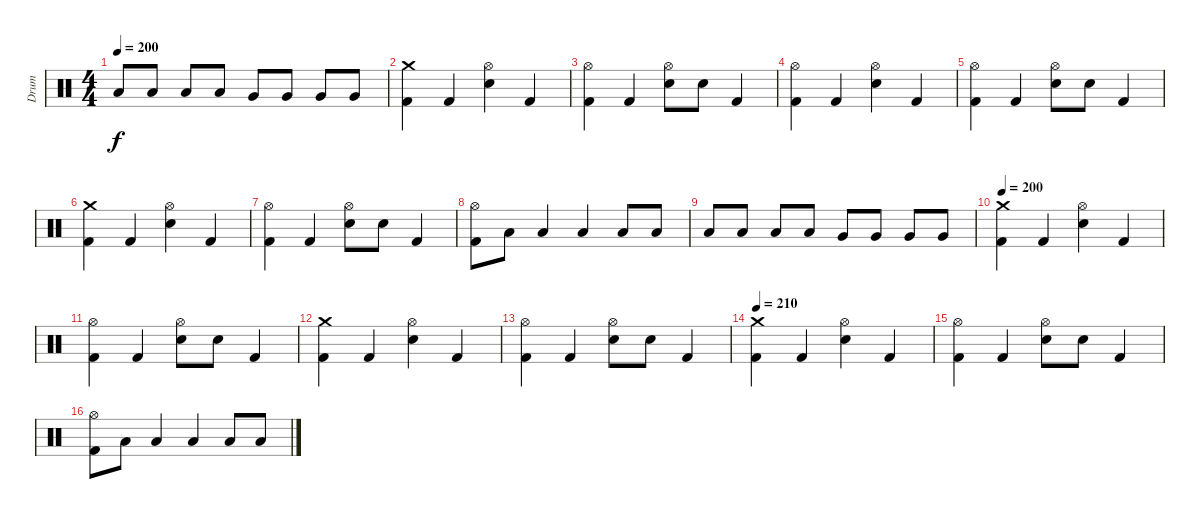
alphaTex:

\track ("Drum" "Drum") {instrument percussion}
\staff {score}
\articulation defaults
\ts (4 4)
\tempo 200
\clef neutral
\ks c "Low Tom (hit)".8{dy f} "Low Tom (hit)".8 "Low Tom (hit)".8 "Low Tom (hit)".8 "Very Low Tom (hit)".8 "Very Low Tom (hit)".8 "Very Low Tom (hit)".8 "Very Low Tom (hit)".8
|
("Crash medium (hit)" "Kick (hit) 2").4 "Kick (hit) 2".4 ("Electric Snare (hit)" "Hi-Hat (open)").4 "Kick (hit) 2".4 |
("Hi-Hat (open)" "Kick (hit) 2").4 "Kick (hit) 2".4 ("Electric Snare (hit)" "Hi-Hat (open)").8 "Electric Snare (hit)".8 "Kick (hit) 2".4 |
("Hi-Hat (open)" "Kick (hit) 2").4 "Kick (hit) 2".4 ("Electric Snare (hit)" "Hi-Hat (open)").4 "Kick (hit) 2".4 |
("Hi-Hat (open)" "Kick (hit) 2").4 "Kick (hit) 2".4 ("Electric Snare (hit)" "Hi-Hat (open)").8 "Electric Snare (hit)".8 "Kick (hit) 2".4 |
("Crash medium (hit)" "Kick (hit) 2").4 "Kick (hit) 2".4 ("Electric Snare (hit)" "Hi-Hat (open)").4 "Kick (hit) 2".4 |
("Hi-Hat (open)" "Kick (hit) 2").4 "Kick (hit) 2".4 ("Electric Snare (hit)" "Hi-Hat (open)").8 "Electric Snare (hit)".8 "Kick (hit) 2".4 |
("Hi-Hat (open)" "Kick (hit) 2").8 "Low Tom (hit)".8 "Low Tom (hit)".4 "Low Tom (hit)".4 "Low Tom (hit)".8 "Low Tom (hit)".8 |
"Low Tom (hit)".8 "Low Tom (hit)".8 "Low Tom (hit)".8 "Low Tom (hit)".8 "Very Low Tom (hit)".8 "Very Low Tom (hit)".8 "Very Low Tom (hit)".8 "Very Low Tom (hit)".8 |
\tempo 220
\tempo 200
("Crash medium (hit)" "Kick (hit) 2").4 "Kick (hit) 2".4 ("Electric Snare (hit)" "Hi-Hat (open)").4 "Kick (hit) 2".4 |
("Hi-Hat (open)" "Kick (hit) 2").4 "Kick (hit) 2".4 ("Electric Snare (hit)" "Hi-Hat (open)").8 "Electric Snare (hit)".8 "Kick (hit) 2".4 |
("Crash medium (hit)" "Kick (hit) 2").4 "Kick (hit) 2".4 ("Electric Snare (hit)" "Hi-Hat (open)").4 "Kick (hit) 2".4 |
("Hi-Hat (open)" "Kick (hit) 2").4 "Kick (hit) 2".4 ("Electric Snare (hit)" "Hi-Hat (open)").8 "Electric Snare (hit)".8 "Kick (hit) 2".4 |
\tempo 210
("Crash medium (hit)" "Kick (hit) 2").4 "Kick (hit) 2".4 ("Electric Snare (hit)" "Hi-Hat (open)").4 "Kick (hit) 2".4 |
("Hi-Hat (open)" "Kick (hit) 2").4 "Kick (hit) 2".4 ("Electric Snare (hit)" "Hi-Hat (open)").8 "Electric Snare (hit)".8 "Kick (hit) 2".4 |
("Hi-Hat (open)" "Kick (hit) 2").8 "Low Tom (hit)".8 "Low Tom (hit)".4 "Low Tom (hit)".4 "Low Tom (hit)".8 "Low Tom (hit)".8
